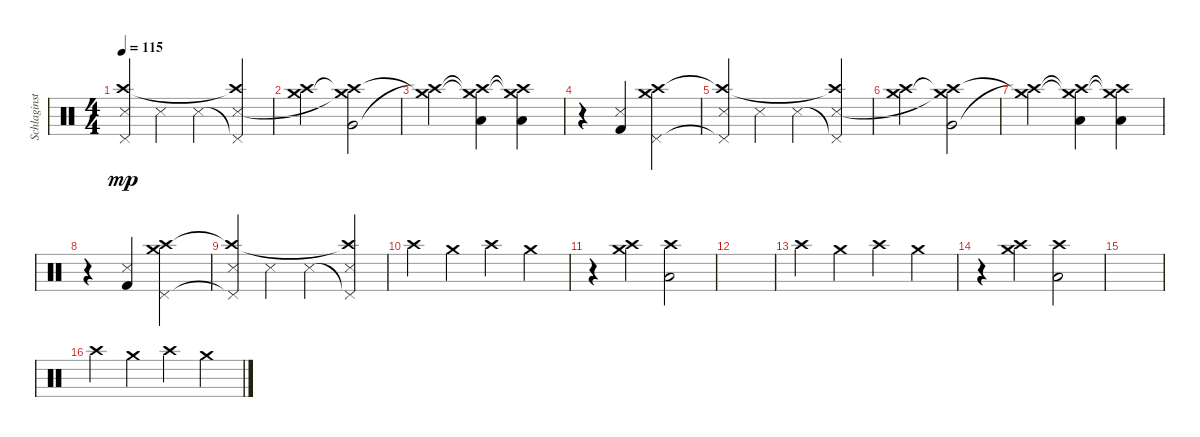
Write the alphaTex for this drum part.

\track ("Schlaginstrumente - Auswahl" "Schlaginst") {instrument percussion}
\staff {score}
\articulation defaults
\ts (4 4)
\tempo 115
\clef neutral
\ks c
("Pedal Hi-Hat (hit)"{t} "Crash high (hit)"{t} "Snare (side stick) 3").4{dy mp} "Snare (side stick) 3".4 "Snare (side stick) 3".4 ("Pedal Hi-Hat (hit)"{t} "Crash high (hit)"{t} "Snare (side stick) 3").4 |
("Crash high (hit)" "Crash medium (hit)").2 ("Very Low Tom (hit)" "Crash high (hit)"{t} "Crash medium (hit)"{t}).2 |
("Crash high (hit)"{t} "Crash medium (hit)"{t}).2 ("Crash high (hit)"{t} "Crash medium (hit)"{t} "Low Floor Tom (hit)").4 ("Crash high (hit)"{t} "Crash medium (hit)"{t} "Low Floor Tom (hit)").4 |
r.4 ("Kick (hit) 2" "Snare (side stick) 3").4 ("Pedal Hi-Hat (hit)" "Crash high (hit)" "Crash medium (hit)").2 |
("Pedal Hi-Hat (hit)"{t} "Crash high (hit)"{t} "Snare (side stick) 3").4 "Snare (side stick) 3".4 "Snare (side stick) 3".4 ("Pedal Hi-Hat (hit)"{t} "Crash high (hit)"{t} "Snare (side stick) 3").4 |
("Crash high (hit)" "Crash medium (hit)").2 ("Very Low Tom (hit)" "Crash high (hit)"{t} "Crash medium (hit)"{t}).2 |
("Crash high (hit)"{t} "Crash medium (hit)"{t}).2 ("Crash high (hit)"{t} "Crash medium (hit)"{t} "Low Floor Tom (hit)").4 ("Crash high (hit)"{t} "Crash medium (hit)"{t} "Low Floor Tom (hit)").4 |
r.4 ("Kick (hit) 2" "Snare (side stick) 3").4 ("Pedal Hi-Hat (hit)" "Crash high (hit)" "Crash medium (hit)").2 |
("Pedal Hi-Hat (hit)"{t} "Crash high (hit)"{t} "Snare (side stick) 3").4 "Snare (side stick) 3".4 "Snare (side stick) 3".4 ("Pedal Hi-Hat (hit)"{t} "Crash high (hit)"{t} "Snare (side stick) 3").4 |
"Crash high (hit)".4 "Crash medium (hit)".4 "Crash high (hit)".4 "Crash medium (hit)".4 |
r.4 ("Crash high (hit)" "Crash medium (hit)").4 ("Crash high (hit)" "Low Floor Tom (hit)").2 |
|
"Crash high (hit)".4 "Crash medium (hit)".4 "Crash high (hit)".4 "Crash medium (hit)".4 |
r.4 ("Crash high (hit)" "Crash medium (hit)").4 ("Crash high (hit)" "Low Floor Tom (hit)").2 |
|
"Crash high (hit)".4 "Crash medium (hit)".4 "Crash high (hit)".4 "Crash medium (hit)".4
